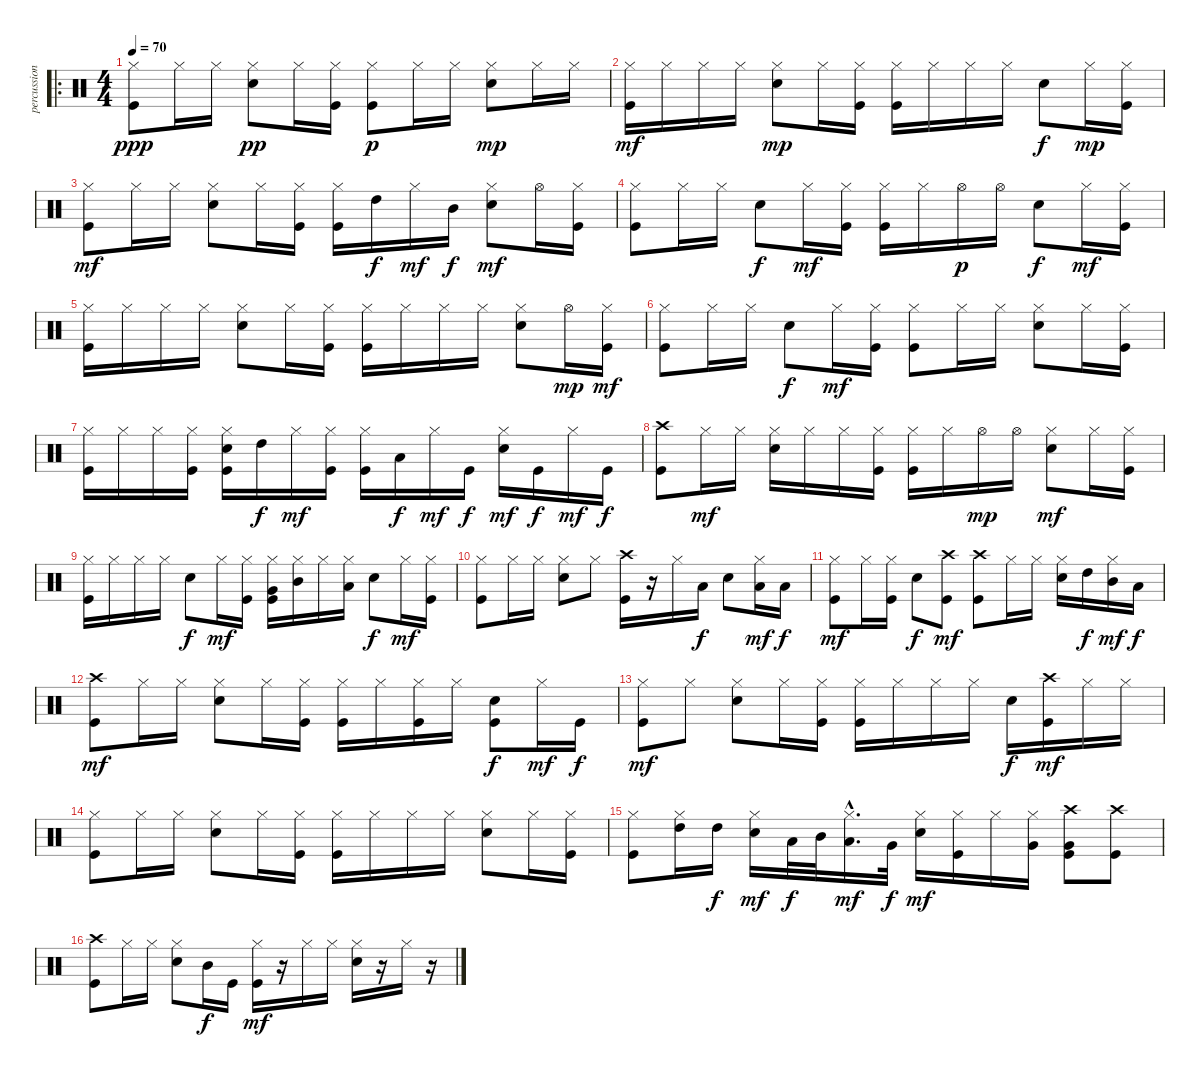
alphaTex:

\track ("percussion" "percussion") {instrument percussion}
\staff {score}
\articulation defaults
\ro
\ts (4 4)
\tempo 70
\clef neutral
\ks c
("Hi-Hat (closed)" "Kick (hit)").8{dy ppp} "Hi-Hat (closed)".16 "Hi-Hat (closed)".16 ("Snare (hit) 2" "Hi-Hat (closed)").8{dy pp} "Hi-Hat (closed)".16 ("Hi-Hat (closed)" "Kick (hit)").16 ("Hi-Hat (closed)" "Kick (hit)").8{dy p} "Hi-Hat (closed)".16 "Hi-Hat (closed)".16 ("Snare (hit) 2" "Hi-Hat (closed)").8{dy mp} "Hi-Hat (closed)".16 "Hi-Hat (closed)".16 |
("Hi-Hat (closed)" "Kick (hit)").16{dy mf} "Hi-Hat (closed)".16 "Hi-Hat (closed)".16 "Hi-Hat (closed)".16 ("Snare (hit) 2" "Hi-Hat (closed)").8{dy mp} "Hi-Hat (closed)".16 ("Hi-Hat (closed)" "Kick (hit)").16 ("Hi-Hat (closed)" "Kick (hit)").16 "Hi-Hat (closed)".16 "Hi-Hat (closed)".16 "Hi-Hat (closed)".16 "Snare (hit) 2".8{dy f} "Hi-Hat (closed)".16{dy mp} ("Hi-Hat (closed)" "Kick (hit)").16 |
("Hi-Hat (closed)" "Kick (hit)").8{dy mf} "Hi-Hat (closed)".16 "Hi-Hat (closed)".16 ("Snare (hit) 2" "Hi-Hat (closed)").8 "Hi-Hat (closed)".16 ("Hi-Hat (closed)" "Kick (hit)").16 ("Hi-Hat (closed)" "Kick (hit)").16 "High Tom (hit)".16{dy f} "Hi-Hat (closed)".16{dy mf} "Mid Tom (hit)".16{dy f} ("Snare (hit) 2" "Hi-Hat (closed)").8{dy mf} "Hi-Hat (open)".16 ("Hi-Hat (closed)" "Kick (hit)").16 |
("Hi-Hat (closed)" "Kick (hit)").8 "Hi-Hat (closed)".16 "Hi-Hat (closed)".16 "Snare (hit) 2".8{dy f} "Hi-Hat (closed)".16{dy mf} ("Hi-Hat (closed)" "Kick (hit)").16 ("Hi-Hat (closed)" "Kick (hit)").16 "Hi-Hat (closed)".16 "Hi-Hat (open)".16{dy p} "Hi-Hat (open)".16 "Snare (hit) 2".8{dy f} "Hi-Hat (closed)".16{dy mf} ("Hi-Hat (closed)" "Kick (hit)").16 |
("Hi-Hat (closed)" "Kick (hit)").16 "Hi-Hat (closed)".16 "Hi-Hat (closed)".16 "Hi-Hat (closed)".16 ("Snare (hit) 2" "Hi-Hat (closed)").8 "Hi-Hat (closed)".16 ("Hi-Hat (closed)" "Kick (hit)").16 ("Hi-Hat (closed)" "Kick (hit)").16 "Hi-Hat (closed)".16 "Hi-Hat (closed)".16 "Hi-Hat (closed)".16 ("Snare (hit) 2" "Hi-Hat (closed)").8 "Hi-Hat (open)".16{dy mp} ("Hi-Hat (closed)" "Kick (hit)").16{dy mf} |
("Hi-Hat (closed)" "Kick (hit)").8 "Hi-Hat (closed)".16 "Hi-Hat (closed)".16 "Snare (hit) 2".8{dy f} "Hi-Hat (closed)".16{dy mf} ("Hi-Hat (closed)" "Kick (hit)").16 ("Hi-Hat (closed)" "Kick (hit)").8 "Hi-Hat (closed)".16 "Hi-Hat (closed)".16 ("Snare (hit) 2" "Hi-Hat (closed)").8 "Hi-Hat (closed)".16 ("Hi-Hat (closed)" "Kick (hit)").16 |
("Hi-Hat (closed)" "Kick (hit)").16 "Hi-Hat (closed)".16 "Hi-Hat (closed)".16 ("Hi-Hat (closed)" "Kick (hit)").16 ("Snare (hit) 2" "Hi-Hat (closed)" "Kick (hit)").16 "High Tom (hit)".16{dy f} "Hi-Hat (closed)".16{dy mf} ("Hi-Hat (closed)" "Kick (hit)").16 ("Hi-Hat (closed)" "Kick (hit)").16 "Low Tom (hit)".16{dy f} "Hi-Hat (closed)".16{dy mf} "Kick (hit)".16{dy f} ("Snare (hit) 2" "Hi-Hat (closed)").16{dy mf} "Kick (hit)".16{dy f} "Hi-Hat (closed)".16{dy mf} "Kick (hit)".16{dy f} |
("Crash high (hit)" "Kick (hit)").8 "Hi-Hat (closed)".16{dy mf} "Hi-Hat (closed)".16 ("Snare (hit) 2" "Hi-Hat (closed)").16 "Hi-Hat (closed)".16 "Hi-Hat (closed)".16 ("Hi-Hat (closed)" "Kick (hit)").16 ("Hi-Hat (closed)" "Kick (hit)").16 "Hi-Hat (closed)".16 "Hi-Hat (open)".16{dy mp} "Hi-Hat (open)".16 ("Snare (hit) 2" "Hi-Hat (closed)").8{dy mf} "Hi-Hat (closed)".16 ("Hi-Hat (closed)" "Kick (hit)").16 |
("Hi-Hat (closed)" "Kick (hit)").16 "Hi-Hat (closed)".16 "Hi-Hat (closed)".16 "Hi-Hat (closed)".16 "Snare (hit) 2".8{dy f} "Hi-Hat (closed)".16{dy mf} ("Hi-Hat (closed)" "Kick (hit)").16 ("Very Low Tom (hit)" "Hi-Hat (closed)" "Kick (hit)").16 ("Mid Tom (hit)" "Hi-Hat (closed)").16 "Hi-Hat (closed)".16 ("Low Floor Tom (hit)" "Hi-Hat (closed)").16 "Snare (hit) 2".8{dy f} "Hi-Hat (closed)".16{dy mf} ("Hi-Hat (closed)" "Kick (hit)").16 |
("Hi-Hat (closed)" "Kick (hit)").8 "Hi-Hat (closed)".16 "Hi-Hat (closed)".16 ("Snare (hit) 2" "Hi-Hat (closed)").8 "Hi-Hat (closed)".8 ("Crash high (hit)" "Kick (hit)").16 r.16 "Hi-Hat (closed)".16 "Low Tom (hit)".16{dy f} "Snare (hit) 2".8 ("Low Tom (hit)" "Hi-Hat (closed)").16{dy mf} "Low Tom (hit)".16{dy f} |
("Hi-Hat (closed)" "Kick (hit)").8{dy mf} "Hi-Hat (closed)".16 ("Hi-Hat (closed)" "Kick (hit)").16 "Snare (hit) 2".8{dy f} ("Crash high (hit)" "Kick (hit)").8{dy mf} ("Crash high (hit)" "Kick (hit)").8 "Hi-Hat (closed)".16 "Hi-Hat (closed)".16 ("Snare (hit) 2" "Hi-Hat (closed)").16 "High Tom (hit)".16{dy f} ("Mid Tom (hit)" "Hi-Hat (closed)").16{dy mf} "Low Tom (hit)".16{dy f} |
("Crash high (hit)" "Kick (hit)").8{dy mf} "Hi-Hat (closed)".16 "Hi-Hat (closed)".16 ("Snare (hit) 2" "Hi-Hat (closed)").8 "Hi-Hat (closed)".16 ("Hi-Hat (closed)" "Kick (hit)").16 ("Hi-Hat (closed)" "Kick (hit)").16 "Hi-Hat (closed)".16 ("Hi-Hat (closed)" "Kick (hit)").16 "Hi-Hat (closed)".16 ("Snare (hit) 2" "Kick (hit)").8{dy f} "Hi-Hat (closed)".16{dy mf} "Kick (hit)".16{dy f} |
("Hi-Hat (closed)" "Kick (hit)").8{dy mf} "Hi-Hat (closed)".8 ("Snare (hit) 2" "Hi-Hat (closed)").8 "Hi-Hat (closed)".16 ("Hi-Hat (closed)" "Kick (hit)").16 ("Hi-Hat (closed)" "Kick (hit)").16 "Hi-Hat (closed)".16 "Hi-Hat (closed)".16 "Hi-Hat (closed)".16 "Snare (hit) 2".16{dy f} ("Crash high (hit)" "Kick (hit)").16{dy mf} "Hi-Hat (closed)".16 "Hi-Hat (closed)".16 |
("Hi-Hat (closed)" "Kick (hit)").8 "Hi-Hat (closed)".16 "Hi-Hat (closed)".16 ("Snare (hit) 2" "Hi-Hat (closed)").8 "Hi-Hat (closed)".16 ("Hi-Hat (closed)" "Kick (hit)").16 ("Hi-Hat (closed)" "Kick (hit)").16 "Hi-Hat (closed)".16 "Hi-Hat (closed)".16 "Hi-Hat (closed)".16 ("Snare (hit) 2" "Hi-Hat (closed)").8 "Hi-Hat (closed)".16 ("Hi-Hat (closed)" "Kick (hit)").16 |
("Hi-Hat (closed)" "Kick (hit)").8 ("High Tom (hit)" "Hi-Hat (closed)").16 "High Tom (hit)".16{dy f} ("Snare (hit) 2" "Hi-Hat (closed)").16{dy mf} "Low Tom (hit)".32{dy f} "Mid Tom (hit)".32 ("Low Tom (hit)"{hac} "Hi-Hat (closed)"{hac}).16{d dy mf} "Very Low Tom (hit)".32{dy f} ("Snare (hit) 2" "Hi-Hat (closed)").16{dy mf} ("Hi-Hat (closed)" "Kick (hit)").16 "Hi-Hat (closed)".16 ("Very Low Tom (hit)" "Hi-Hat (closed)").16 ("Crash high (hit)" "Very Low Tom (hit)" "Kick (hit)").8 ("Crash high (hit)" "Kick (hit)").8 |
("Crash high (hit)" "Kick (hit)").8 "Hi-Hat (closed)".16 "Hi-Hat (closed)".16 ("Snare (hit) 2" "Hi-Hat (closed)").8 "Mid Tom (hit)".16{dy f} "Kick (hit)".16 ("Hi-Hat (closed)" "Kick (hit)").16{dy mf} r.16 "Hi-Hat (closed)".16 "Hi-Hat (closed)".16 ("Snare (hit) 2" "Hi-Hat (closed)").16 r.16 "Hi-Hat (closed)".16 r.16
